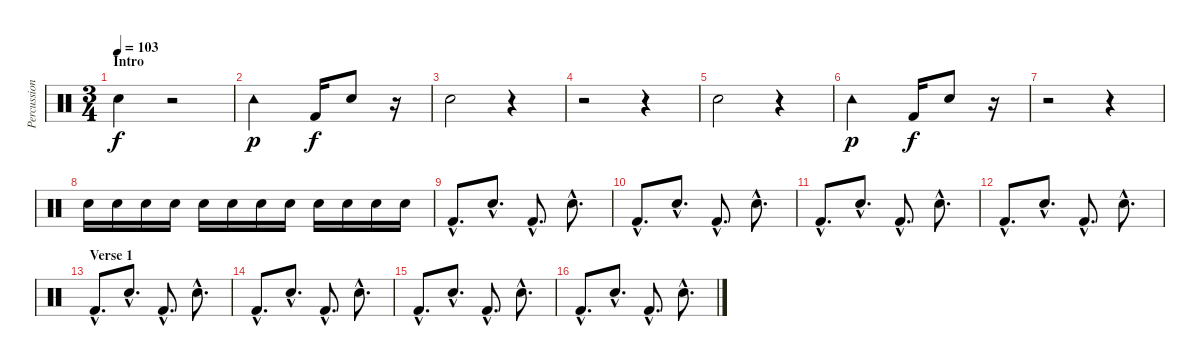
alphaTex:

\track ("Percussion" "Percussion") {instrument percussion}
\staff {score}
\articulation defaults
\ts (3 4)
\section ("" "Intro")
\tempo 103
\clef neutral
\ks c "Electric Snare (hit)".4{dy f}
r.2 |
"Tambourine (hit)".2{dy p} "Kick (hit) 2".16{dy f} "Electric Snare (hit)".8 r.16 |
"Electric Snare (hit)".2 r.4 |
r.2 r.4 |
"Electric Snare (hit)".2 r.4 |
"Tambourine (hit)".2{dy p} "Kick (hit) 2".16{dy f} "Electric Snare (hit)".8 r.16 |
r.2 r.4 |
"Electric Snare (hit)".16 "Electric Snare (hit)".16 "Electric Snare (hit)".16 "Electric Snare (hit)".16 "Electric Snare (hit)".16 "Electric Snare (hit)".16 "Electric Snare (hit)".16 "Electric Snare (hit)".16 "Electric Snare (hit)".16 "Electric Snare (hit)".16 "Electric Snare (hit)".16 "Electric Snare (hit)".16 |
"Kick (hit) 2"{hac}.8{d} "Electric Snare (hit)"{hac}.8{d} "Kick (hit) 2"{hac}.8{d} "Electric Snare (hit)"{hac}.8{d} |
"Kick (hit) 2"{hac}.8{d} "Electric Snare (hit)"{hac}.8{d} "Kick (hit) 2"{hac}.8{d} "Electric Snare (hit)"{hac}.8{d} |
"Kick (hit) 2"{hac}.8{d} "Electric Snare (hit)"{hac}.8{d} "Kick (hit) 2"{hac}.8{d} "Electric Snare (hit)"{hac}.8{d} |
"Kick (hit) 2"{hac}.8{d} "Electric Snare (hit)"{hac}.8{d} "Kick (hit) 2"{hac}.8{d} "Electric Snare (hit)"{hac}.8{d} |
\section ("" "Verse 1")
"Kick (hit) 2"{hac}.8{d} "Electric Snare (hit)"{hac}.8{d} "Kick (hit) 2"{hac}.8{d} "Electric Snare (hit)"{hac}.8{d} |
"Kick (hit) 2"{hac}.8{d} "Electric Snare (hit)"{hac}.8{d} "Kick (hit) 2"{hac}.8{d} "Electric Snare (hit)"{hac}.8{d} |
"Kick (hit) 2"{hac}.8{d} "Electric Snare (hit)"{hac}.8{d} "Kick (hit) 2"{hac}.8{d} "Electric Snare (hit)"{hac}.8{d} |
"Kick (hit) 2"{hac}.8{d} "Electric Snare (hit)"{hac}.8{d} "Kick (hit) 2"{hac}.8{d} "Electric Snare (hit)"{hac}.8{d}
